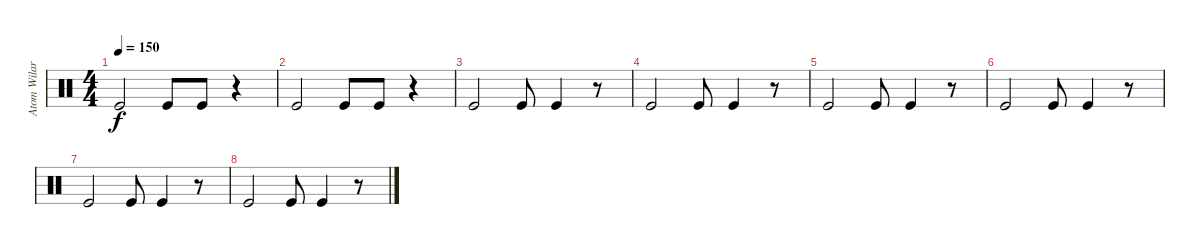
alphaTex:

\track ("Atom Wilard" "Atom Wilar") {instrument percussion}
\staff {score}
\articulation defaults
\ts (4 4)
\tempo 150
\clef neutral
\ks c "Kick (hit)".2{dy f} "Kick (hit)".8 "Kick (hit)".8
r.4 |
"Kick (hit)".2 "Kick (hit)".8 "Kick (hit)".8 r.4 |
"Kick (hit)".2 "Kick (hit)".8 "Kick (hit)".4 r.8 |
"Kick (hit)".2 "Kick (hit)".8 "Kick (hit)".4 r.8 |
"Kick (hit)".2 "Kick (hit)".8 "Kick (hit)".4 r.8 |
"Kick (hit)".2 "Kick (hit)".8 "Kick (hit)".4 r.8 |
"Kick (hit)".2 "Kick (hit)".8 "Kick (hit)".4 r.8 |
"Kick (hit)".2 "Kick (hit)".8 "Kick (hit)".4 r.8
